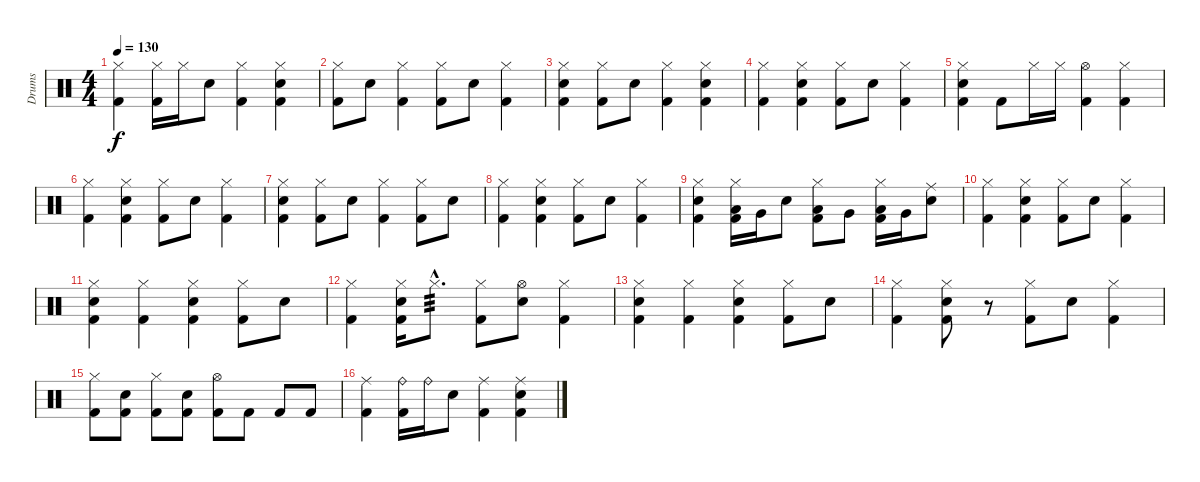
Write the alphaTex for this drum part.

\track ("Drums" "Drums") {instrument percussion}
\staff {score}
\articulation defaults
\ts (4 4)
\tempo 130
\clef neutral
\ks c
("Hi-Hat (closed)" "Kick (hit) 2").4{dy f} ("Hi-Hat (closed)" "Kick (hit) 2").16 "Hi-Hat (closed)".16 "Electric Snare (hit)".8 ("Hi-Hat (closed)" "Kick (hit) 2").4 ("Electric Snare (hit)" "Hi-Hat (closed)" "Kick (hit) 2").4 |
("Hi-Hat (closed)" "Kick (hit) 2").8 "Electric Snare (hit)".8 ("Hi-Hat (closed)" "Kick (hit) 2").4 ("Hi-Hat (closed)" "Kick (hit) 2").8 "Electric Snare (hit)".8 ("Hi-Hat (closed)" "Kick (hit) 2").4 |
("Electric Snare (hit)" "Hi-Hat (closed)" "Kick (hit) 2").4 ("Hi-Hat (closed)" "Kick (hit) 2").8 "Electric Snare (hit)".8 ("Hi-Hat (closed)" "Kick (hit) 2").4 ("Electric Snare (hit)" "Hi-Hat (closed)" "Kick (hit) 2").4 |
("Hi-Hat (closed)" "Kick (hit) 2").4 ("Electric Snare (hit)" "Hi-Hat (closed)" "Kick (hit) 2").4 ("Hi-Hat (closed)" "Kick (hit) 2").8 "Electric Snare (hit)".8 ("Hi-Hat (closed)" "Kick (hit) 2").4 |
("Electric Snare (hit)" "Hi-Hat (closed)" "Kick (hit) 2").4 "Kick (hit) 2".8 "Hi-Hat (closed)".16 "Hi-Hat (closed)".16 ("Hi-Hat (open)" "Kick (hit) 2").4 ("Hi-Hat (closed)" "Kick (hit) 2").4 |
("Hi-Hat (closed)" "Kick (hit) 2").4 ("Electric Snare (hit)" "Hi-Hat (closed)" "Kick (hit) 2").4 ("Hi-Hat (closed)" "Kick (hit) 2").8 "Electric Snare (hit)".8 ("Hi-Hat (closed)" "Kick (hit) 2").4 |
("Electric Snare (hit)" "Hi-Hat (closed)" "Kick (hit) 2").4 ("Hi-Hat (closed)" "Kick (hit) 2").8 "Electric Snare (hit)".8 ("Hi-Hat (closed)" "Kick (hit) 2").4 ("Hi-Hat (closed)" "Kick (hit) 2").8 "Electric Snare (hit)".8 |
("Hi-Hat (closed)" "Kick (hit) 2").4 ("Electric Snare (hit)" "Hi-Hat (closed)" "Kick (hit) 2").4 ("Hi-Hat (closed)" "Kick (hit) 2").8 "Electric Snare (hit)".8 ("Hi-Hat (closed)" "Kick (hit) 2").4 |
("Electric Snare (hit)" "Hi-Hat (closed)" "Kick (hit) 2").4 ("Low Floor Tom (hit)" "Hi-Hat (closed)" "Kick (hit) 2").16 "Very Low Tom (hit)".16 "Electric Snare (hit)".8 ("Low Floor Tom (hit)" "Hi-Hat (closed)" "Kick (hit) 2").8 "Very Low Tom (hit)".8 ("Low Floor Tom (hit)" "Hi-Hat (closed)" "Kick (hit) 2").16 "Very Low Tom (hit)".16 ("Ride (middle)" "Electric Snare (hit)").8 |
("Hi-Hat (closed)" "Kick (hit) 2").4 ("Electric Snare (hit)" "Hi-Hat (closed)" "Kick (hit) 2").4 ("Hi-Hat (closed)" "Kick (hit) 2").8 "Electric Snare (hit)".8 ("Hi-Hat (closed)" "Kick (hit) 2").4 |
("Electric Snare (hit)" "Hi-Hat (closed)" "Kick (hit) 2").4 ("Hi-Hat (closed)" "Kick (hit) 2").4 ("Electric Snare (hit)" "Hi-Hat (closed)" "Kick (hit) 2").4 ("Hi-Hat (closed)" "Kick (hit) 2").8 "Electric Snare (hit)".8 |
("Hi-Hat (closed)" "Kick (hit) 2").4 ("Electric Snare (hit)" "Hi-Hat (closed)" "Kick (hit) 2").16 "Hi-Hat (closed)"{hac}.8{d tp 3} ("Hi-Hat (closed)" "Kick (hit) 2").8 ("Electric Snare (hit)" "Hi-Hat (open)").8 ("Hi-Hat (closed)" "Kick (hit) 2").4 |
("Electric Snare (hit)" "Hi-Hat (closed)" "Kick (hit) 2").4 ("Hi-Hat (closed)" "Kick (hit) 2").4 ("Electric Snare (hit)" "Hi-Hat (closed)" "Kick (hit) 2").4 ("Hi-Hat (closed)" "Kick (hit) 2").8 "Electric Snare (hit)".8 |
("Hi-Hat (closed)" "Kick (hit) 2").4 ("Electric Snare (hit)" "Hi-Hat (closed)" "Kick (hit) 2").8 r.8 ("Hi-Hat (closed)" "Kick (hit) 2").8 "Electric Snare (hit)".8 ("Hi-Hat (closed)" "Kick (hit) 2").4 |
("Hi-Hat (closed)" "Kick (hit) 2").8 ("Electric Snare (hit)" "Kick (hit) 2").8 ("Hi-Hat (closed)" "Kick (hit) 2").8 ("Electric Snare (hit)" "Kick (hit) 2").8 ("Hi-Hat (open)" "Kick (hit) 2").8 "Kick (hit) 2".8 "Kick (hit) 2".8 "Kick (hit) 2".8 |
("Ride (middle)" "Kick (hit) 2").4 ("Ride (bell)" "Kick (hit) 2").16 "Ride (bell)".16 "Electric Snare (hit)".8 ("Ride (middle)" "Kick (hit) 2").4 ("Electric Snare (hit)" "Ride (middle)" "Kick (hit) 2").4
